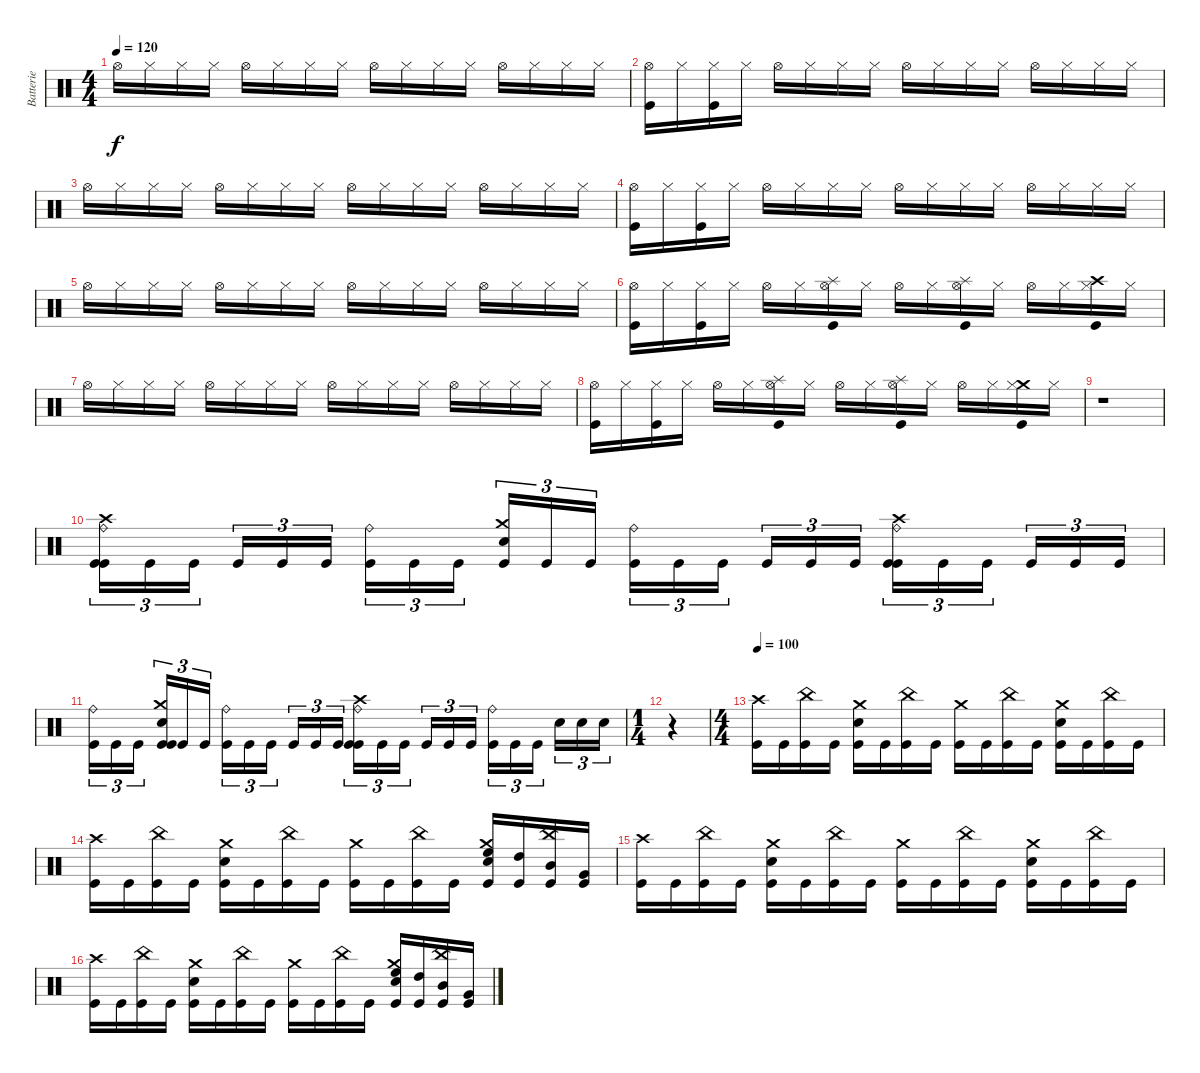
\track ("Batterie" "Batterie") {instrument percussion}
\staff {score}
\articulation defaults
\ts (4 4)
\tempo 120
\clef neutral
\ks c "Hi-Hat (open)".16{dy f} "Hi-Hat (closed)".16 "Hi-Hat (closed)".16 "Hi-Hat (closed)".16 "Hi-Hat (open)".16 "Hi-Hat (closed)".16 "Hi-Hat (closed)".16 "Hi-Hat (closed)".16 "Hi-Hat (open)".16 "Hi-Hat (closed)".16 "Hi-Hat (closed)".16 "Hi-Hat (closed)".16 "Hi-Hat (open)".16 "Hi-Hat (closed)".16 "Hi-Hat (closed)".16 "Hi-Hat (closed)".16
|
("Hi-Hat (open)" "Kick (hit)").16 "Hi-Hat (closed)".16 ("Hi-Hat (closed)" "Kick (hit)").16 "Hi-Hat (closed)".16 "Hi-Hat (open)".16 "Hi-Hat (closed)".16 "Hi-Hat (closed)".16 "Hi-Hat (closed)".16 "Hi-Hat (open)".16 "Hi-Hat (closed)".16 "Hi-Hat (closed)".16 "Hi-Hat (closed)".16 "Hi-Hat (open)".16 "Hi-Hat (closed)".16 "Hi-Hat (closed)".16 "Hi-Hat (closed)".16 |
"Hi-Hat (open)".16 "Hi-Hat (closed)".16 "Hi-Hat (closed)".16 "Hi-Hat (closed)".16 "Hi-Hat (open)".16 "Hi-Hat (closed)".16 "Hi-Hat (closed)".16 "Hi-Hat (closed)".16 "Hi-Hat (open)".16 "Hi-Hat (closed)".16 "Hi-Hat (closed)".16 "Hi-Hat (closed)".16 "Hi-Hat (open)".16 "Hi-Hat (closed)".16 "Hi-Hat (closed)".16 "Hi-Hat (closed)".16 |
("Hi-Hat (open)" "Kick (hit)").16 "Hi-Hat (closed)".16 ("Hi-Hat (closed)" "Kick (hit)").16 "Hi-Hat (closed)".16 "Hi-Hat (open)".16 "Hi-Hat (closed)".16 "Hi-Hat (closed)".16 "Hi-Hat (closed)".16 "Hi-Hat (open)".16 "Hi-Hat (closed)".16 "Hi-Hat (closed)".16 "Hi-Hat (closed)".16 "Hi-Hat (open)".16 "Hi-Hat (closed)".16 "Hi-Hat (closed)".16 "Hi-Hat (closed)".16 |
"Hi-Hat (open)".16 "Hi-Hat (closed)".16 "Hi-Hat (closed)".16 "Hi-Hat (closed)".16 "Hi-Hat (open)".16 "Hi-Hat (closed)".16 "Hi-Hat (closed)".16 "Hi-Hat (closed)".16 "Hi-Hat (open)".16 "Hi-Hat (closed)".16 "Hi-Hat (closed)".16 "Hi-Hat (closed)".16 "Hi-Hat (open)".16 "Hi-Hat (closed)".16 "Hi-Hat (closed)".16 "Hi-Hat (closed)".16 |
("Hi-Hat (open)" "Kick (hit)").16 "Hi-Hat (closed)".16 ("Hi-Hat (closed)" "Kick (hit)").16 "Hi-Hat (closed)".16 "Hi-Hat (open)".16 "Hi-Hat (closed)".16 ("Splash (hit)" "Hi-Hat (open)" "Kick (hit)").16 "Hi-Hat (closed)".16 "Hi-Hat (open)".16 "Hi-Hat (closed)".16 ("Splash (hit)" "Hi-Hat (open)" "Kick (hit)").16 "Hi-Hat (closed)".16 "Hi-Hat (open)".16 "Hi-Hat (closed)".16 ("Crash high (hit)" "Hi-Hat (closed)" "Kick (hit)").16 "Hi-Hat (closed)".16 |
"Hi-Hat (open)".16 "Hi-Hat (closed)".16 "Hi-Hat (closed)".16 "Hi-Hat (closed)".16 "Hi-Hat (open)".16 "Hi-Hat (closed)".16 "Hi-Hat (closed)".16 "Hi-Hat (closed)".16 "Hi-Hat (open)".16 "Hi-Hat (closed)".16 "Hi-Hat (closed)".16 "Hi-Hat (closed)".16 "Hi-Hat (open)".16 "Hi-Hat (closed)".16 "Hi-Hat (closed)".16 "Hi-Hat (closed)".16 |
("Hi-Hat (open)" "Kick (hit)").16 "Hi-Hat (closed)".16 ("Hi-Hat (closed)" "Kick (hit)").16 "Hi-Hat (closed)".16 "Hi-Hat (open)".16 "Hi-Hat (closed)".16 ("Splash (hit)" "Hi-Hat (open)" "Kick (hit)").16 "Hi-Hat (closed)".16 "Hi-Hat (open)".16 "Hi-Hat (closed)".16 ("Splash (hit)" "Hi-Hat (open)" "Kick (hit)").16 "Hi-Hat (closed)".16 "Hi-Hat (open)".16 "Hi-Hat (closed)".16 ("Crash medium (hit)" "Hi-Hat (closed)" "Kick (hit)").16 "Hi-Hat (closed)".16 |
r.1 |
("Crash high (hit)" "Ride (bell)" "Kick (hit)" "Kick (hit)").16{tu (3 2)} "Kick (hit)".16{tu (3 2)} "Kick (hit)".16{tu (3 2)} "Kick (hit)".16{tu (3 2)} "Kick (hit)".16{tu (3 2)} "Kick (hit)".16{tu (3 2)} ("Ride (bell)" "Kick (hit)").16{tu (3 2)} "Kick (hit)".16{tu (3 2)} "Kick (hit)".16{tu (3 2)} ("Crash medium (hit)" "Snare (hit) 2" "Kick (hit)").16{tu (3 2)} "Kick (hit)".16{tu (3 2)} "Kick (hit)".16{tu (3 2)} ("Ride (bell)" "Kick (hit)").16{tu (3 2)} "Kick (hit)".16{tu (3 2)} "Kick (hit)".16{tu (3 2)} "Kick (hit)".16{tu (3 2)} "Kick (hit)".16{tu (3 2)} "Kick (hit)".16{tu (3 2)} ("Crash high (hit)" "Ride (bell)" "Kick (hit)" "Kick (hit)").16{tu (3 2)} "Kick (hit)".16{tu (3 2)} "Kick (hit)".16{tu (3 2)} "Kick (hit)".16{tu (3 2)} "Kick (hit)".16{tu (3 2)} "Kick (hit)".16{tu (3 2)} |
("Ride (bell)" "Kick (hit)").16{tu (3 2)} "Kick (hit)".16{tu (3 2)} "Kick (hit)".16{tu (3 2)} ("Crash medium (hit)" "Snare (hit) 2" "Kick (hit)" "Kick (hit)").16{tu (3 2)} "Kick (hit)".16{tu (3 2)} "Kick (hit)".16{tu (3 2)} ("Ride (bell)" "Kick (hit)").16{tu (3 2)} "Kick (hit)".16{tu (3 2)} "Kick (hit)".16{tu (3 2)} "Kick (hit)".16{tu (3 2)} "Kick (hit)".16{tu (3 2)} "Kick (hit)".16{tu (3 2)} ("Crash high (hit)" "Ride (bell)" "Kick (hit)" "Kick (hit)").16{tu (3 2)} "Kick (hit)".16{tu (3 2)} "Kick (hit)".16{tu (3 2)} "Kick (hit)".16{tu (3 2)} "Kick (hit)".16{tu (3 2)} "Kick (hit)".16{tu (3 2)} ("Ride (bell)" "Kick (hit)").16{tu (3 2)} "Kick (hit)".16{tu (3 2)} "Kick (hit)".16{tu (3 2)} "Snare (hit) 2".16{tu (3 2)} "Snare (hit) 2".16{tu (3 2)} "Snare (hit) 2".16{tu (3 2)} |
\ts (1 4)
r.4 |
\ts (4 4)
\tempo 100
("Crash high (hit)" "Kick (hit)").16 "Kick (hit)".16 ("China (hit)" "Kick (hit)").16 "Kick (hit)".16 ("Crash medium (hit)" "Snare (hit) 2" "Kick (hit)").16 "Kick (hit)".16 ("China (hit)" "Kick (hit)").16 "Kick (hit)".16 ("Crash medium (hit)" "Kick (hit)").16 "Kick (hit)".16 ("China (hit)" "Kick (hit)").16 "Kick (hit)".16 ("Crash medium (hit)" "Snare (hit) 2" "Kick (hit)").16 "Kick (hit)".16 ("China (hit)" "Kick (hit)").16 "Kick (hit)".16 |
("Crash high (hit)" "Kick (hit)").16 "Kick (hit)".16 ("China (hit)" "Kick (hit)").16 "Kick (hit)".16 ("Crash medium (hit)" "Snare (hit) 2" "Kick (hit)").16 "Kick (hit)".16 ("China (hit)" "Kick (hit)").16 "Kick (hit)".16 ("Crash medium (hit)" "Kick (hit)").16 "Kick (hit)".16 ("China (hit)" "Kick (hit)").16 "Kick (hit)".16 ("Crash medium (hit)" "Snare (hit) 2" "High Floor Tom (hit)" "Kick (hit)").16 ("High Tom (hit)" "Kick (hit)").16 ("China (hit)" "Mid Tom (hit)" "Kick (hit)").16 ("Very Low Tom (hit)" "Kick (hit)").16 |
("Crash high (hit)" "Kick (hit)").16 "Kick (hit)".16 ("China (hit)" "Kick (hit)").16 "Kick (hit)".16 ("Crash medium (hit)" "Snare (hit) 2" "Kick (hit)").16 "Kick (hit)".16 ("China (hit)" "Kick (hit)").16 "Kick (hit)".16 ("Crash medium (hit)" "Kick (hit)").16 "Kick (hit)".16 ("China (hit)" "Kick (hit)").16 "Kick (hit)".16 ("Crash medium (hit)" "Snare (hit) 2" "Kick (hit)").16 "Kick (hit)".16 ("China (hit)" "Kick (hit)").16 "Kick (hit)".16 |
("Crash high (hit)" "Kick (hit)").16 "Kick (hit)".16 ("China (hit)" "Kick (hit)").16 "Kick (hit)".16 ("Crash medium (hit)" "Snare (hit) 2" "Kick (hit)").16 "Kick (hit)".16 ("China (hit)" "Kick (hit)").16 "Kick (hit)".16 ("Crash medium (hit)" "Kick (hit)").16 "Kick (hit)".16 ("China (hit)" "Kick (hit)").16 "Kick (hit)".16 ("Crash medium (hit)" "Snare (hit) 2" "High Floor Tom (hit)" "Kick (hit)").16 ("High Tom (hit)" "Kick (hit)").16 ("China (hit)" "Mid Tom (hit)" "Kick (hit)").16 ("Very Low Tom (hit)" "Kick (hit)").16
